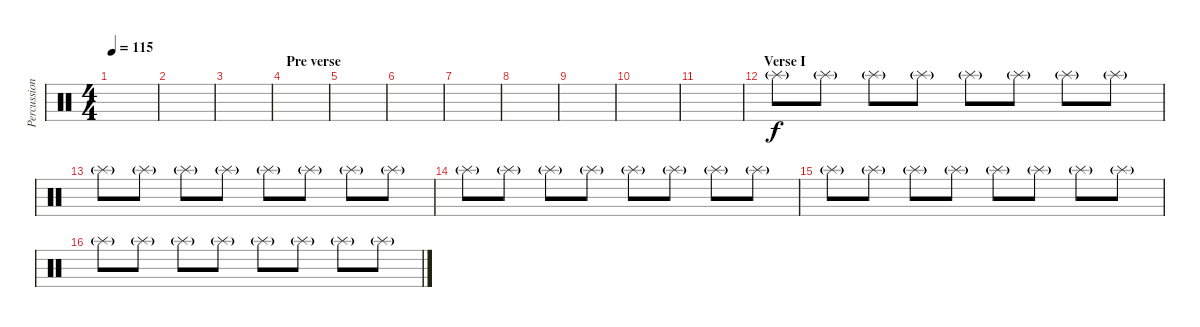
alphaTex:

\track ("Percussion - Splash Cymbal" "Percussion") {instrument percussion}
\staff {score}
\articulation defaults
\ts (4 4)
\tempo 115
\clef neutral
\ks c
|
|
|
\section ("" "Pre verse")
|
|
|
|
|
|
|
|
\section ("" "Verse I")
"Splash (hit)"{g}.8 "Splash (hit)"{g}.8 "Splash (hit)"{g}.8 "Splash (hit)"{g}.8 "Splash (hit)"{g}.8 "Splash (hit)"{g}.8 "Splash (hit)"{g}.8 "Splash (hit)"{g}.8 |
"Splash (hit)"{g}.8 "Splash (hit)"{g}.8 "Splash (hit)"{g}.8 "Splash (hit)"{g}.8 "Splash (hit)"{g}.8 "Splash (hit)"{g}.8 "Splash (hit)"{g}.8 "Splash (hit)"{g}.8 |
"Splash (hit)"{g}.8 "Splash (hit)"{g}.8 "Splash (hit)"{g}.8 "Splash (hit)"{g}.8 "Splash (hit)"{g}.8 "Splash (hit)"{g}.8 "Splash (hit)"{g}.8 "Splash (hit)"{g}.8 |
"Splash (hit)"{g}.8 "Splash (hit)"{g}.8 "Splash (hit)"{g}.8 "Splash (hit)"{g}.8 "Splash (hit)"{g}.8 "Splash (hit)"{g}.8 "Splash (hit)"{g}.8 "Splash (hit)"{g}.8 |
"Splash (hit)"{g}.8 "Splash (hit)"{g}.8 "Splash (hit)"{g}.8 "Splash (hit)"{g}.8 "Splash (hit)"{g}.8 "Splash (hit)"{g}.8 "Splash (hit)"{g}.8 "Splash (hit)"{g}.8
